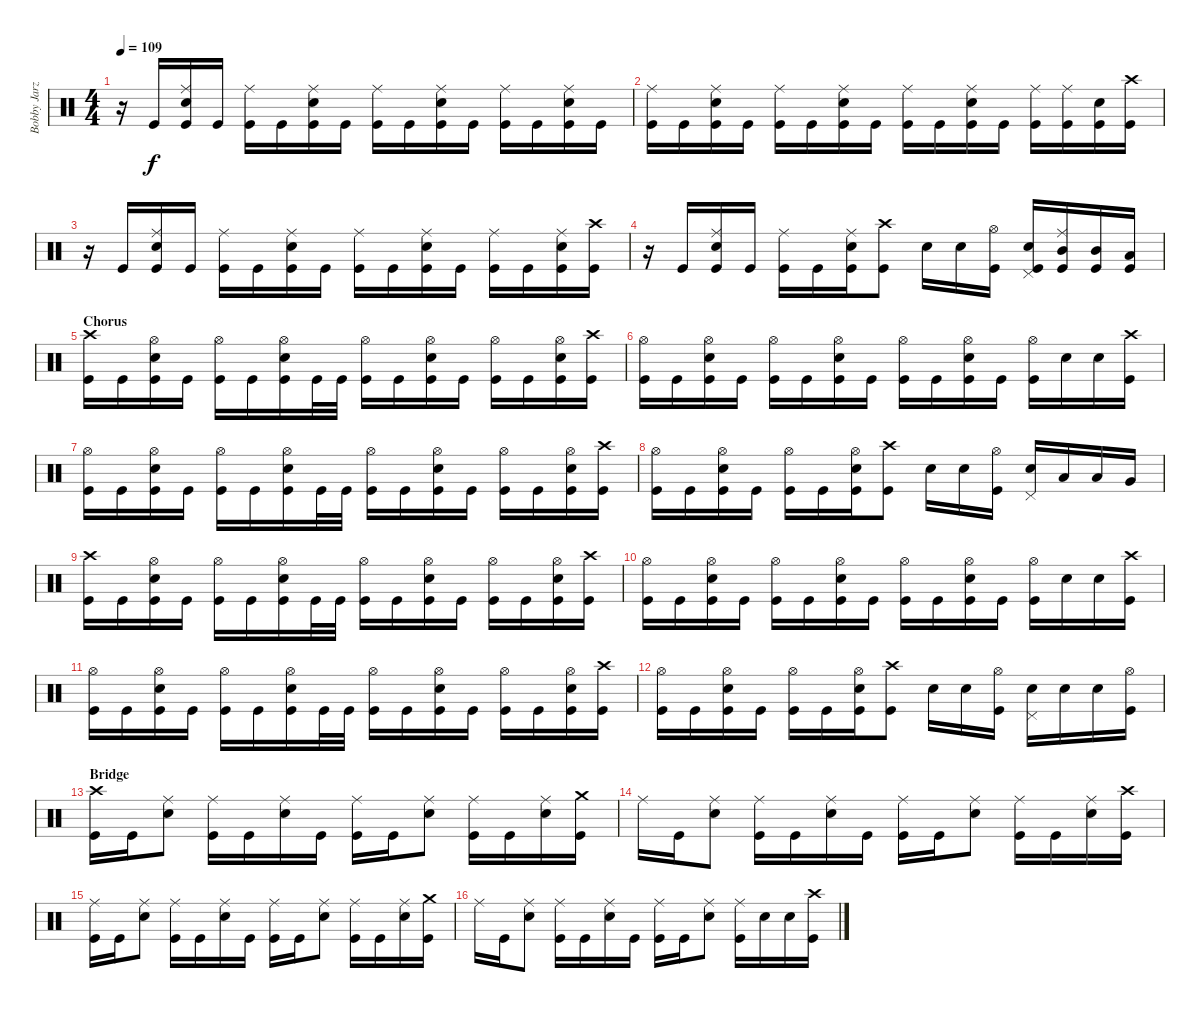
\track ("Bobby Jarzombek" "Bobby Jarz") {instrument percussion}
\staff {score}
\articulation defaults
\ts (4 4)
\tempo 109
\clef neutral
\ks c
r.16{dy f} "Kick (hit)".16 ("Ride (middle)" "Electric Snare (hit)" "Kick (hit)").16 "Kick (hit)".16 ("Ride (middle)" "Kick (hit)").16 "Kick (hit)".16 ("Ride (middle)" "Electric Snare (hit)" "Kick (hit)").16 "Kick (hit)".16 ("Ride (middle)" "Kick (hit)").16 "Kick (hit)".16 ("Ride (middle)" "Electric Snare (hit)" "Kick (hit)").16 "Kick (hit)".16 ("Ride (middle)" "Kick (hit)").16 "Kick (hit)".16 ("Ride (middle)" "Electric Snare (hit)" "Kick (hit)").16 "Kick (hit)".16 |
("Ride (middle)" "Kick (hit)").16 "Kick (hit)".16 ("Ride (middle)" "Electric Snare (hit)" "Kick (hit)").16 "Kick (hit)".16 ("Ride (middle)" "Kick (hit)").16 "Kick (hit)".16 ("Ride (middle)" "Electric Snare (hit)" "Kick (hit)").16 "Kick (hit)".16 ("Ride (middle)" "Kick (hit)").16 "Kick (hit)".16 ("Ride (middle)" "Electric Snare (hit)" "Kick (hit)").16 "Kick (hit)".16 ("Ride (middle)" "Kick (hit)").16 ("Ride (middle)" "Kick (hit)").16 ("Electric Snare (hit)" "Kick (hit)").16 ("Crash high (hit)" "Kick (hit)").16 |
r.16 "Kick (hit)".16 ("Ride (middle)" "Electric Snare (hit)" "Kick (hit)").16 "Kick (hit)".16 ("Ride (middle)" "Kick (hit)").16 "Kick (hit)".16 ("Ride (middle)" "Electric Snare (hit)" "Kick (hit)").16 "Kick (hit)".16 ("Ride (middle)" "Kick (hit)").16 "Kick (hit)".16 ("Ride (middle)" "Electric Snare (hit)" "Kick (hit)").16 "Kick (hit)".16 ("Ride (middle)" "Kick (hit)").16 "Kick (hit)".16 ("Ride (middle)" "Electric Snare (hit)" "Kick (hit)").16 ("Crash high (hit)" "Kick (hit)").16 |
r.16 "Kick (hit)".16 ("Ride (middle)" "Electric Snare (hit)" "Kick (hit)").16 "Kick (hit)".16 ("Ride (middle)" "Kick (hit)").16 "Kick (hit)".16 ("Ride (middle)" "Electric Snare (hit)" "Kick (hit)").16 ("Crash high (hit)" "Kick (hit)").8 "Electric Snare (hit)".16 "Electric Snare (hit)".16 ("Hi-Hat (open)" "Kick (hit)").16 ("Electric Snare (hit)" "Pedal Hi-Hat (hit)" "Kick (hit)").16 ("Ride (middle)" "Mid Tom (hit)" "Kick (hit)").16 ("Mid Tom (hit)" "Kick (hit)").16 ("Low Tom (hit)" "Kick (hit)").16 |
\section ("" "Chorus")
("Crash high (hit)" "Kick (hit)").16 "Kick (hit)".16 ("Hi-Hat (open)" "Electric Snare (hit)" "Kick (hit)").16 "Kick (hit)".16 ("Hi-Hat (open)" "Kick (hit)").16 "Kick (hit)".16 ("Hi-Hat (open)" "Electric Snare (hit)" "Kick (hit)").16 "Kick (hit)".32 "Kick (hit)".32 ("Hi-Hat (open)" "Kick (hit)").16 "Kick (hit)".16 ("Hi-Hat (open)" "Electric Snare (hit)" "Kick (hit)").16 "Kick (hit)".16 ("Hi-Hat (open)" "Kick (hit)").16 "Kick (hit)".16 ("Hi-Hat (open)" "Electric Snare (hit)" "Kick (hit)").16 ("Crash high (hit)" "Kick (hit)").16 |
("Hi-Hat (open)" "Kick (hit)").16 "Kick (hit)".16 ("Hi-Hat (open)" "Electric Snare (hit)" "Kick (hit)").16 "Kick (hit)".16 ("Hi-Hat (open)" "Kick (hit)").16 "Kick (hit)".16 ("Hi-Hat (open)" "Electric Snare (hit)" "Kick (hit)").16 "Kick (hit)".16 ("Hi-Hat (open)" "Kick (hit)").16 "Kick (hit)".16 ("Hi-Hat (open)" "Electric Snare (hit)" "Kick (hit)").16 "Kick (hit)".16 ("Hi-Hat (open)" "Kick (hit)").16 "Electric Snare (hit)".16 "Electric Snare (hit)".16 ("Crash high (hit)" "Kick (hit)").16 |
("Hi-Hat (open)" "Kick (hit)").16 "Kick (hit)".16 ("Hi-Hat (open)" "Electric Snare (hit)" "Kick (hit)").16 "Kick (hit)".16 ("Hi-Hat (open)" "Kick (hit)").16 "Kick (hit)".16 ("Hi-Hat (open)" "Electric Snare (hit)" "Kick (hit)").16 "Kick (hit)".32 "Kick (hit)".32 ("Hi-Hat (open)" "Kick (hit)").16 "Kick (hit)".16 ("Hi-Hat (open)" "Electric Snare (hit)" "Kick (hit)").16 "Kick (hit)".16 ("Hi-Hat (open)" "Kick (hit)").16 "Kick (hit)".16 ("Hi-Hat (open)" "Electric Snare (hit)" "Kick (hit)").16 ("Crash high (hit)" "Kick (hit)").16 |
("Hi-Hat (open)" "Kick (hit)").16 "Kick (hit)".16 ("Hi-Hat (open)" "Electric Snare (hit)" "Kick (hit)").16 "Kick (hit)".16 ("Hi-Hat (open)" "Kick (hit)").16 "Kick (hit)".16 ("Hi-Hat (open)" "Electric Snare (hit)" "Kick (hit)").16 ("Crash high (hit)" "Kick (hit)").8 "Electric Snare (hit)".16 "Electric Snare (hit)".16 ("Hi-Hat (open)" "Kick (hit)").16 ("Electric Snare (hit)" "Pedal Hi-Hat (hit)").16 "Low Tom (hit)".16 "Low Tom (hit)".16 "Very Low Tom (hit)".16 |
("Crash high (hit)" "Kick (hit)").16 "Kick (hit)".16 ("Hi-Hat (open)" "Electric Snare (hit)" "Kick (hit)").16 "Kick (hit)".16 ("Hi-Hat (open)" "Kick (hit)").16 "Kick (hit)".16 ("Hi-Hat (open)" "Electric Snare (hit)" "Kick (hit)").16 "Kick (hit)".32 "Kick (hit)".32 ("Hi-Hat (open)" "Kick (hit)").16 "Kick (hit)".16 ("Hi-Hat (open)" "Electric Snare (hit)" "Kick (hit)").16 "Kick (hit)".16 ("Hi-Hat (open)" "Kick (hit)").16 "Kick (hit)".16 ("Hi-Hat (open)" "Electric Snare (hit)" "Kick (hit)").16 ("Crash high (hit)" "Kick (hit)").16 |
("Hi-Hat (open)" "Kick (hit)").16 "Kick (hit)".16 ("Hi-Hat (open)" "Electric Snare (hit)" "Kick (hit)").16 "Kick (hit)".16 ("Hi-Hat (open)" "Kick (hit)").16 "Kick (hit)".16 ("Hi-Hat (open)" "Electric Snare (hit)" "Kick (hit)").16 "Kick (hit)".16 ("Hi-Hat (open)" "Kick (hit)").16 "Kick (hit)".16 ("Hi-Hat (open)" "Electric Snare (hit)" "Kick (hit)").16 "Kick (hit)".16 ("Hi-Hat (open)" "Kick (hit)").16 "Electric Snare (hit)".16 "Electric Snare (hit)".16 ("Crash high (hit)" "Kick (hit)").16 |
("Hi-Hat (open)" "Kick (hit)").16 "Kick (hit)".16 ("Hi-Hat (open)" "Electric Snare (hit)" "Kick (hit)").16 "Kick (hit)".16 ("Hi-Hat (open)" "Kick (hit)").16 "Kick (hit)".16 ("Hi-Hat (open)" "Electric Snare (hit)" "Kick (hit)").16 "Kick (hit)".32 "Kick (hit)".32 ("Hi-Hat (open)" "Kick (hit)").16 "Kick (hit)".16 ("Hi-Hat (open)" "Electric Snare (hit)" "Kick (hit)").16 "Kick (hit)".16 ("Hi-Hat (open)" "Kick (hit)").16 "Kick (hit)".16 ("Hi-Hat (open)" "Electric Snare (hit)" "Kick (hit)").16 ("Crash high (hit)" "Kick (hit)").16 |
("Hi-Hat (open)" "Kick (hit)").16 "Kick (hit)".16 ("Hi-Hat (open)" "Electric Snare (hit)" "Kick (hit)").16 "Kick (hit)".16 ("Hi-Hat (open)" "Kick (hit)").16 "Kick (hit)".16 ("Hi-Hat (open)" "Electric Snare (hit)" "Kick (hit)").16 ("Crash high (hit)" "Kick (hit)").8 "Electric Snare (hit)".16 "Electric Snare (hit)".16 ("Hi-Hat (open)" "Kick (hit)").16 ("Electric Snare (hit)" "Pedal Hi-Hat (hit)").16 "Electric Snare (hit)".16 "Electric Snare (hit)".16 ("Hi-Hat (open)" "Kick (hit)").16 |
\section ("" "Bridge")
("Crash high (hit)" "Kick (hit)").16 "Kick (hit)".16 ("Ride (middle)" "Electric Snare (hit)").8 ("Ride (middle)" "Kick (hit)").16 "Kick (hit)".16 ("Ride (middle)" "Electric Snare (hit)").16 "Kick (hit)".16 ("Ride (middle)" "Kick (hit)").16 "Kick (hit)".16 ("Ride (middle)" "Electric Snare (hit)").8 ("Ride (middle)" "Kick (hit)").16 "Kick (hit)".16 ("Ride (middle)" "Electric Snare (hit)").16 ("Crash medium (hit)" "Kick (hit)").16 |
"Ride (middle)".16 "Kick (hit)".16 ("Ride (middle)" "Electric Snare (hit)").8 ("Ride (middle)" "Kick (hit)").16 "Kick (hit)".16 ("Ride (middle)" "Electric Snare (hit)").16 "Kick (hit)".16 ("Ride (middle)" "Kick (hit)").16 "Kick (hit)".16 ("Ride (middle)" "Electric Snare (hit)").8 ("Ride (middle)" "Kick (hit)").16 "Kick (hit)".16 ("Ride (middle)" "Electric Snare (hit)").16 ("Crash high (hit)" "Kick (hit)").16 |
("Ride (middle)" "Kick (hit)").16 "Kick (hit)".16 ("Ride (middle)" "Electric Snare (hit)").8 ("Ride (middle)" "Kick (hit)").16 "Kick (hit)".16 ("Ride (middle)" "Electric Snare (hit)").16 "Kick (hit)".16 ("Ride (middle)" "Kick (hit)").16 "Kick (hit)".16 ("Ride (middle)" "Electric Snare (hit)").8 ("Ride (middle)" "Kick (hit)").16 "Kick (hit)".16 ("Ride (middle)" "Electric Snare (hit)").16 ("Crash medium (hit)" "Kick (hit)").16 |
"Ride (middle)".16 "Kick (hit)".16 ("Ride (middle)" "Electric Snare (hit)").8 ("Ride (middle)" "Kick (hit)").16 "Kick (hit)".16 ("Ride (middle)" "Electric Snare (hit)").16 "Kick (hit)".16 ("Ride (middle)" "Kick (hit)").16 "Kick (hit)".16 ("Ride (middle)" "Electric Snare (hit)").8 ("Ride (middle)" "Kick (hit)").16 "Electric Snare (hit)".16 "Electric Snare (hit)".16 ("Crash high (hit)" "Kick (hit)").16
